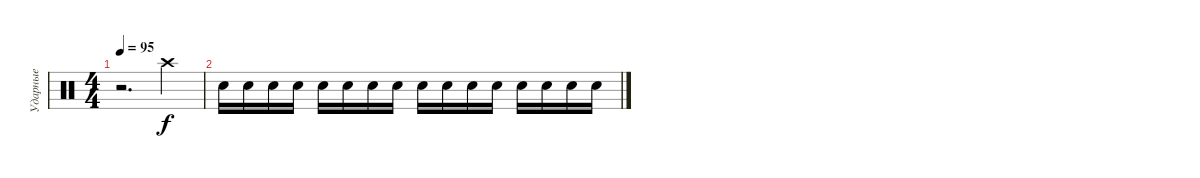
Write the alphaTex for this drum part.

\track ("Ударные" "Ударные") {instrument percussion}
\staff {score}
\articulation defaults
\ts (4 4)
\tempo 95
\clef neutral
\ks c
r.2{d dy f} "Crash high (hit)".4 |
"Electric Snare (hit)".16 "Electric Snare (hit)".16 "Electric Snare (hit)".16 "Electric Snare (hit)".16 "Electric Snare (hit)".16 "Electric Snare (hit)".16 "Electric Snare (hit)".16 "Electric Snare (hit)".16 "Electric Snare (hit)".16 "Electric Snare (hit)".16 "Electric Snare (hit)".16 "Electric Snare (hit)".16 "Electric Snare (hit)".16 "Electric Snare (hit)".16 "Electric Snare (hit)".16 "Electric Snare (hit)".16
